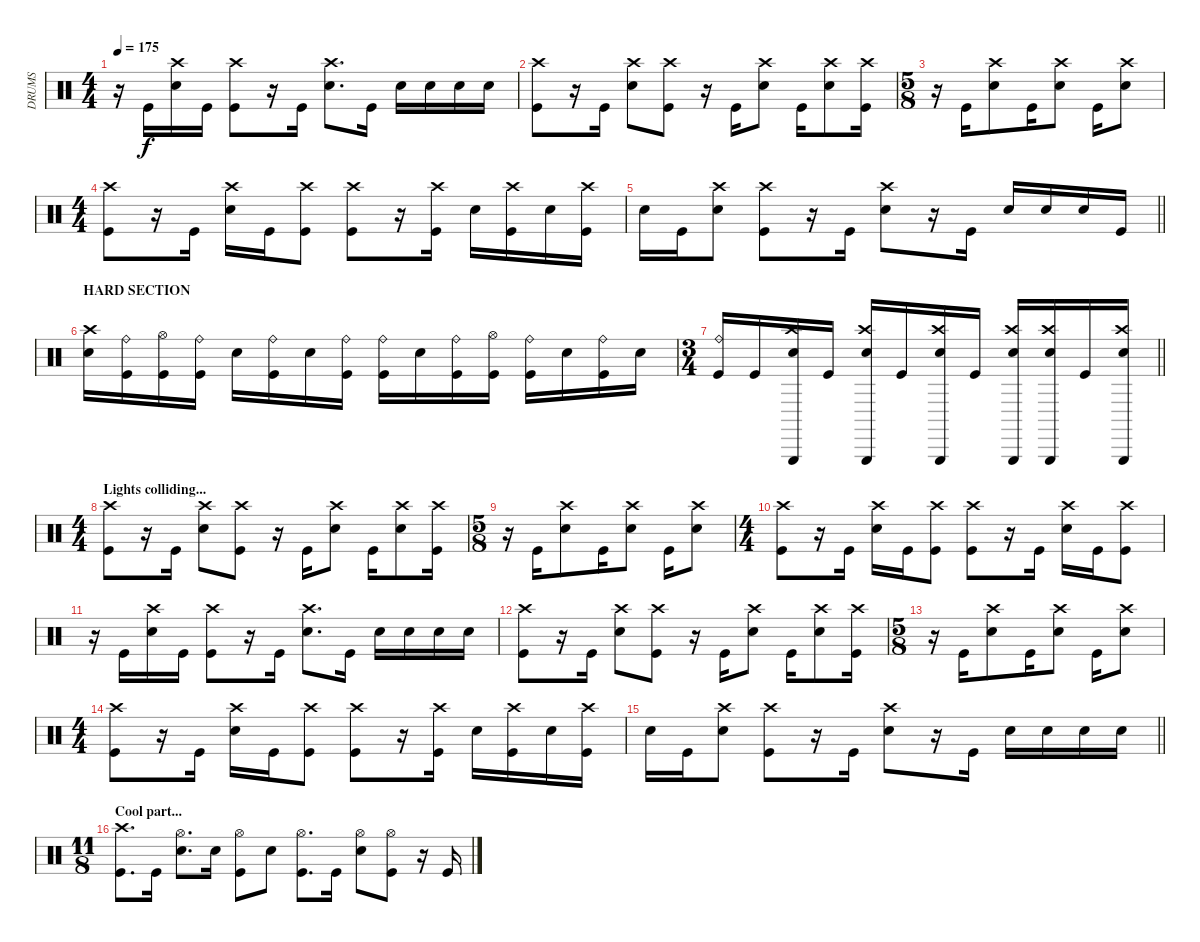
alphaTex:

\track ("DRUMS" "DRUMS") {instrument percussion}
\staff {score}
\articulation defaults
\ts (4 4)
\tempo 175
\clef neutral
\ks c
r.16{dy f} "Kick (hit)".16 ("Snare (hit) 2" "Crash high (hit)").16 "Kick (hit)".16 ("Kick (hit)" "Crash high (hit)").8 r.16 "Kick (hit)".16 ("Snare (hit) 2" "Crash high (hit)").8{d} "Kick (hit)".16 "Snare (hit) 2".16 "Snare (hit) 2".16 "Snare (hit) 2".16 "Snare (hit) 2".16 |
("Kick (hit)" "Crash high (hit)").8 r.16 "Kick (hit)".16 ("Snare (hit) 2" "Crash high (hit)").8 ("Kick (hit)" "Crash high (hit)").8 r.16 "Kick (hit)".16 ("Snare (hit) 2" "Crash high (hit)").8 "Kick (hit)".16 ("Snare (hit) 2" "Crash high (hit)").8 ("Kick (hit)" "Crash high (hit)").16 |
\ts (5 8)
r.16 "Kick (hit)".16 ("Snare (hit) 2" "Crash high (hit)").8 "Kick (hit)".16 ("Snare (hit) 2" "Crash high (hit)").8 "Kick (hit)".16 ("Snare (hit) 2" "Crash high (hit)").8 |
\ts (4 4)
("Kick (hit)" "Crash high (hit)").8 r.16 "Kick (hit)".16 ("Snare (hit) 2" "Crash high (hit)").16 "Kick (hit)".16 ("Kick (hit)" "Crash high (hit)").8 ("Kick (hit)" "Crash high (hit)").8 r.16 ("Kick (hit)" "Crash high (hit)").16 "Snare (hit) 2".16 ("Kick (hit)" "Crash high (hit)").16 "Snare (hit) 2".16 ("Kick (hit)" "Crash high (hit)").16 |
\barLineRight lightlight "Snare (hit) 2".16 "Kick (hit)".16
("Snare (hit) 2" "Crash high (hit)").8 ("Kick (hit)" "Crash high (hit)").8 r.16 "Kick (hit)".16 ("Snare (hit) 2" "Crash high (hit)").8 r.16 "Kick (hit)".16 "Snare (hit) 2".16 "Snare (hit) 2".16 "Snare (hit) 2".16 "Kick (hit)".16 |
\section ("" "HARD SECTION")
("Snare (hit) 2" "Crash high (hit)").16 ("Kick (hit)" "Ride (bell)").16 ("Kick (hit)" "Hi-Hat (open)").16 ("Kick (hit)" "Ride (bell)").16 "Snare (hit) 2".16 ("Kick (hit)" "Ride (bell)").16 "Snare (hit) 2".16 ("Kick (hit)" "Ride (bell)").16 ("Kick (hit)" "Ride (bell)").16 "Snare (hit) 2".16 ("Kick (hit)" "Ride (bell)").16 ("Kick (hit)" "Hi-Hat (open)").16 ("Kick (hit)" "Ride (bell)").16 "Snare (hit) 2".16 ("Kick (hit)" "Ride (bell)").16 "Snare (hit) 2".16 |
\ts (3 4)
\barLineRight lightlight
("Kick (hit)" "Ride (bell)").16 "Kick (hit)".16 ("Snare (hit) 2" "Triangle (hit)" "Crash high (hit)").16 "Kick (hit)".16 ("Snare (hit) 2" "Triangle (hit)" "Crash high (hit)").16 "Kick (hit)".16 ("Snare (hit) 2" "Triangle (hit)" "Crash high (hit)").16 "Kick (hit)".16 ("Snare (hit) 2" "Triangle (hit)" "Crash high (hit)").16 ("Snare (hit) 2" "Crash high (hit)" "Triangle (hit)").16 "Kick (hit)".16 ("Snare (hit) 2" "Crash high (hit)" "Triangle (hit)").16 |
\ts (4 4)
\section ("" "Lights colliding...")
("Kick (hit)" "Crash high (hit)").8 r.16 "Kick (hit)".16 ("Snare (hit) 2" "Crash high (hit)").8 ("Kick (hit)" "Crash high (hit)").8 r.16 "Kick (hit)".16 ("Snare (hit) 2" "Crash high (hit)").8 "Kick (hit)".16 ("Snare (hit) 2" "Crash high (hit)").8 ("Kick (hit)" "Crash high (hit)").16 |
\ts (5 8)
r.16 "Kick (hit)".16 ("Snare (hit) 2" "Crash high (hit)").8 "Kick (hit)".16 ("Snare (hit) 2" "Crash high (hit)").8 "Kick (hit)".16 ("Snare (hit) 2" "Crash high (hit)").8 |
\ts (4 4)
("Kick (hit)" "Crash high (hit)").8 r.16 "Kick (hit)".16 ("Snare (hit) 2" "Crash high (hit)").16 "Kick (hit)".16 ("Kick (hit)" "Crash high (hit)").8 ("Kick (hit)" "Crash high (hit)").8 r.16 "Kick (hit)".16 ("Snare (hit) 2" "Crash high (hit)").16 "Kick (hit)".16 ("Kick (hit)" "Crash high (hit)").8 |
r.16 "Kick (hit)".16 ("Snare (hit) 2" "Crash high (hit)").16 "Kick (hit)".16 ("Kick (hit)" "Crash high (hit)").8 r.16 "Kick (hit)".16 ("Snare (hit) 2" "Crash high (hit)").8{d} "Kick (hit)".16 "Snare (hit) 2".16 "Snare (hit) 2".16 "Snare (hit) 2".16 "Snare (hit) 2".16 |
("Kick (hit)" "Crash high (hit)").8 r.16 "Kick (hit)".16 ("Snare (hit) 2" "Crash high (hit)").8 ("Kick (hit)" "Crash high (hit)").8 r.16 "Kick (hit)".16 ("Snare (hit) 2" "Crash high (hit)").8 "Kick (hit)".16 ("Snare (hit) 2" "Crash high (hit)").8 ("Kick (hit)" "Crash high (hit)").16 |
\ts (5 8)
r.16 "Kick (hit)".16 ("Snare (hit) 2" "Crash high (hit)").8 "Kick (hit)".16 ("Snare (hit) 2" "Crash high (hit)").8 "Kick (hit)".16 ("Snare (hit) 2" "Crash high (hit)").8 |
\ts (4 4)
("Kick (hit)" "Crash high (hit)").8 r.16 "Kick (hit)".16 ("Snare (hit) 2" "Crash high (hit)").16 "Kick (hit)".16 ("Kick (hit)" "Crash high (hit)").8 ("Kick (hit)" "Crash high (hit)").8 r.16 ("Kick (hit)" "Crash high (hit)").16 "Snare (hit) 2".16 ("Kick (hit)" "Crash high (hit)").16 "Snare (hit) 2".16 ("Kick (hit)" "Crash high (hit)").16 |
\barLineRight lightlight "Snare (hit) 2".16 "Kick (hit)".16
("Snare (hit) 2" "Crash high (hit)").8 ("Kick (hit)" "Crash high (hit)").8 r.16 "Kick (hit)".16 ("Snare (hit) 2" "Crash high (hit)").8 r.16 "Kick (hit)".16 "Snare (hit) 2".16 "Snare (hit) 2".16 "Snare (hit) 2".16 "Snare (hit) 2".16 |
\ts (11 8)
\section ("" "Cool part...")
("Crash high (hit)" "Kick (hit)").8{d} "Kick (hit)".16 ("Snare (hit) 2" "Hi-Hat (open)").8{d} "Snare (hit) 2".16 ("Kick (hit)" "Hi-Hat (open)").8 "Snare (hit) 2".8 ("Hi-Hat (open)" "Kick (hit)").8{d} "Kick (hit)".16 ("Snare (hit) 2" "Hi-Hat (open)").8 ("Kick (hit)" "Hi-Hat (open)").8 r.16 "Kick (hit)".16
